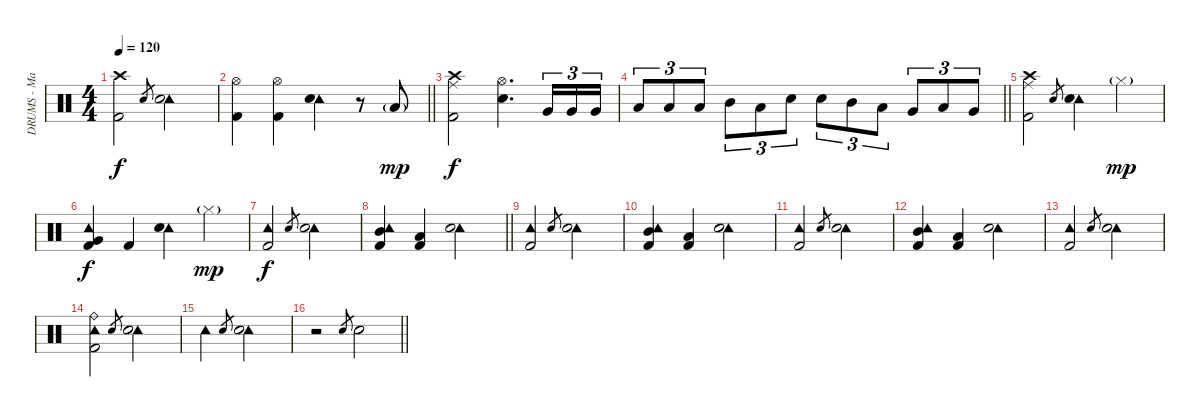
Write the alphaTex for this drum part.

\track ("DRUMS - Mario Duplantier" "DRUMS - Ma") {instrument percussion}
\staff {score}
\articulation defaults
\ts (4 4)
\tempo 120
\clef neutral
\ks c
("Crash high (hit)" "Kick (hit) 2").2{dy f} "Electric Snare (hit)".8{gr} ("Tambourine (hit)" "Electric Snare (hit)").2 |
\barLineRight lightlight
("Hi-Hat (open)" "Kick (hit) 2").4 ("Hi-Hat (open)" "Kick (hit) 2").4 ("Tambourine (hit)" "Electric Snare (hit)").4 r.8 "Low Floor Tom (hit)"{g}.8{dy mp} |
\section ("" "")
("Crash high (hit)" "Ride (middle)" "Kick (hit) 2").2{dy f} ("Hi-Hat (open)" "Electric Snare (hit)").4{d} "Very Low Tom (hit)".16{tu (3 2)} "Very Low Tom (hit)".16{tu (3 2)} "Very Low Tom (hit)".16{tu (3 2)} |
\barLineRight lightlight "Low Tom (hit)".8{tu (3 2)} "Low Tom (hit)".8{tu (3 2)} "Low Tom (hit)".8{tu (3 2)} "Mid Tom (hit)".8{tu (3 2)} "Low Tom (hit)".8{tu (3 2)} "Electric Snare (hit)".8{tu (3 2)} "Electric Snare (hit)".8{tu (3 2)} "Mid Tom (hit)".8{tu (3 2)} "Low Tom (hit)".8{tu (3 2)} "Very Low Tom (hit)".8{tu (3 2)} "Low Tom (hit)".8{tu (3 2)} "Very Low Tom (hit)".8{tu (3 2)}
|
("Crash high (hit)" "Ride (middle)" "Kick (hit) 2").2 "Electric Snare (hit)".8{gr} ("Tambourine (hit)" "Electric Snare (hit)").4 "Hi-Hat (closed)"{g}.4{dy mp} |
("Tambourine (hit)" "Very Low Tom (hit)" "Kick (hit) 2").4{dy f} "Kick (hit) 2".4 ("Tambourine (hit)" "Electric Snare (hit)").4 "Hi-Hat (closed)"{g}.4{dy mp} |
("Tambourine (hit)" "Kick (hit) 2").2{dy f} "Electric Snare (hit)".8{gr} ("Tambourine (hit)" "Electric Snare (hit)").2 |
\barLineRight lightlight
("Tambourine (hit)" "Mid Tom (hit)" "Kick (hit) 2").4 ("Low Tom (hit)" "Kick (hit) 2").4 ("Tambourine (hit)" "Electric Snare (hit)").2 |
("Tambourine (hit)" "Kick (hit) 2").2 "Electric Snare (hit)".8{gr} ("Tambourine (hit)" "Electric Snare (hit)").2 |
("Tambourine (hit)" "Mid Tom (hit)" "Kick (hit) 2").4 ("Low Tom (hit)" "Kick (hit) 2").4 ("Tambourine (hit)" "Electric Snare (hit)").2 |
("Tambourine (hit)" "Kick (hit) 2").2 "Electric Snare (hit)".8{gr} ("Tambourine (hit)" "Electric Snare (hit)").2 |
("Tambourine (hit)" "Mid Tom (hit)" "Kick (hit) 2").4 ("Low Tom (hit)" "Kick (hit) 2").4 ("Tambourine (hit)" "Electric Snare (hit)").2 |
("Tambourine (hit)" "Kick (hit) 2").2 "Electric Snare (hit)".8{gr} ("Tambourine (hit)" "Electric Snare (hit)").2 |
("Tambourine (hit)" "Ride (bell)" "Kick (hit) 2").2 "Electric Snare (hit)".8{gr} ("Tambourine (hit)" "Electric Snare (hit)").2 |
"Tambourine (hit)".2 "Electric Snare (hit)".8{gr} ("Tambourine (hit)" "Electric Snare (hit)").2 |
\barLineRight lightlight
r.2 "Electric Snare (hit)".8{gr} "Electric Snare (hit)".2
